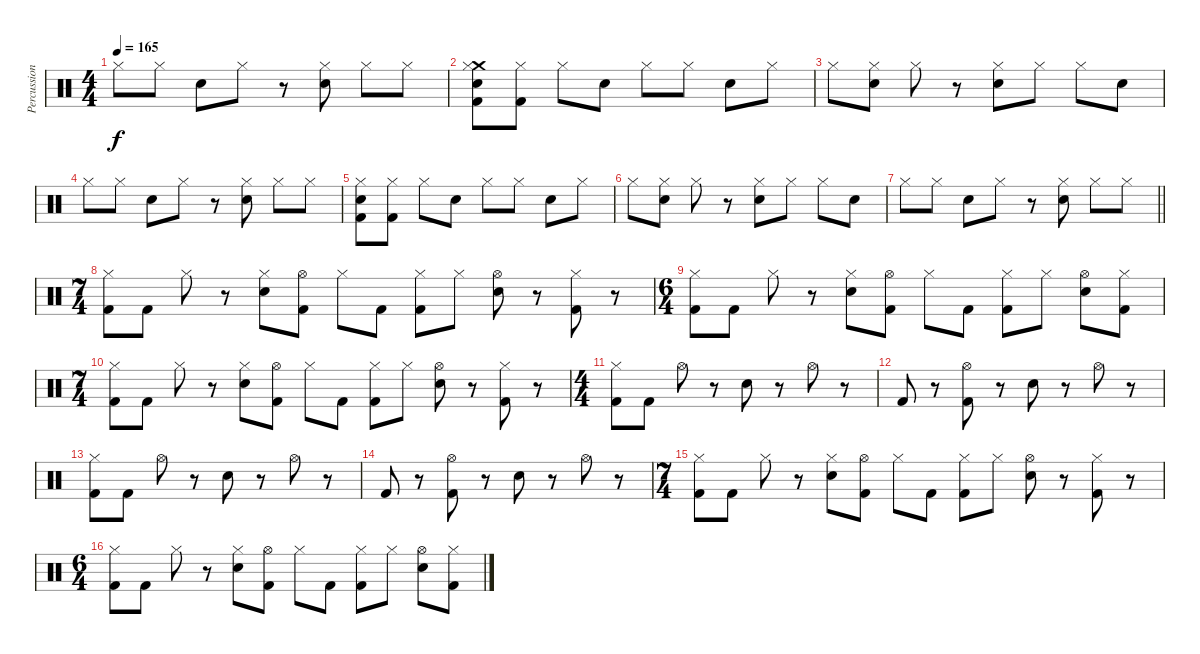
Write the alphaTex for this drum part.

\track ("Percussion" "Percussion") {instrument percussion}
\staff {score}
\articulation defaults
\ts (4 4)
\tempo 165
\clef neutral
\ks c "Hi-Hat (closed)".8{dy f} "Hi-Hat (closed)".8 "Snare (hit) 2".8 "Hi-Hat (closed)".8
r.8 ("Hi-Hat (closed)" "Snare (hit) 2").8 "Hi-Hat (closed)".8 "Hi-Hat (closed)".8 |
("Crash medium (hit)" "Hi-Hat (closed)" "Snare (hit) 2" "Kick (hit) 2").8 ("Hi-Hat (closed)" "Kick (hit) 2").8 "Hi-Hat (closed)".8 "Snare (hit) 2".8 "Hi-Hat (closed)".8 "Hi-Hat (closed)".8 "Snare (hit) 2".8 "Hi-Hat (closed)".8 |
"Hi-Hat (closed)".8 ("Hi-Hat (closed)" "Snare (hit) 2").8 "Hi-Hat (closed)".8 r.8 ("Hi-Hat (closed)" "Snare (hit) 2").8 "Hi-Hat (closed)".8 "Hi-Hat (closed)".8 "Snare (hit) 2".8 |
"Hi-Hat (closed)".8 "Hi-Hat (closed)".8 "Snare (hit) 2".8 "Hi-Hat (closed)".8 r.8 ("Hi-Hat (closed)" "Snare (hit) 2").8 "Hi-Hat (closed)".8 "Hi-Hat (closed)".8 |
("Hi-Hat (closed)" "Snare (hit) 2" "Kick (hit) 2").8 ("Hi-Hat (closed)" "Kick (hit) 2").8 "Hi-Hat (closed)".8 "Snare (hit) 2".8 "Hi-Hat (closed)".8 "Hi-Hat (closed)".8 "Snare (hit) 2".8 "Hi-Hat (closed)".8 |
"Hi-Hat (closed)".8 ("Hi-Hat (closed)" "Snare (hit) 2").8 "Hi-Hat (closed)".8 r.8 ("Hi-Hat (closed)" "Snare (hit) 2").8 "Hi-Hat (closed)".8 "Hi-Hat (closed)".8 "Snare (hit) 2".8 |
\barLineRight lightlight "Hi-Hat (closed)".8 "Hi-Hat (closed)".8 "Snare (hit) 2".8 "Hi-Hat (closed)".8
r.8 ("Hi-Hat (closed)" "Snare (hit) 2").8 "Hi-Hat (closed)".8 "Hi-Hat (closed)".8 |
\ts (7 4)
("Hi-Hat (closed)" "Kick (hit) 2").8 "Kick (hit) 2".8 "Hi-Hat (closed)".8 r.8 ("Hi-Hat (closed)" "Snare (hit) 2").8 ("Hi-Hat (open)" "Kick (hit) 2").8 "Hi-Hat (closed)".8 "Kick (hit) 2".8 ("Hi-Hat (closed)" "Kick (hit) 2").8 "Hi-Hat (closed)".8 ("Hi-Hat (open)" "Snare (hit) 2").8 r.8 ("Hi-Hat (closed)" "Kick (hit) 2").8 r.8 |
\ts (6 4)
("Hi-Hat (closed)" "Kick (hit) 2").8 "Kick (hit) 2".8 "Hi-Hat (closed)".8 r.8 ("Hi-Hat (closed)" "Snare (hit) 2").8 ("Hi-Hat (open)" "Kick (hit) 2").8 "Hi-Hat (closed)".8 "Kick (hit) 2".8 ("Hi-Hat (closed)" "Kick (hit) 2").8 "Hi-Hat (closed)".8 ("Hi-Hat (open)" "Snare (hit) 2").8 ("Hi-Hat (closed)" "Kick (hit) 2").8 |
\ts (7 4)
("Hi-Hat (closed)" "Kick (hit) 2").8 "Kick (hit) 2".8 "Hi-Hat (closed)".8 r.8 ("Hi-Hat (closed)" "Snare (hit) 2").8 ("Hi-Hat (open)" "Kick (hit) 2").8 "Hi-Hat (closed)".8 "Kick (hit) 2".8 ("Hi-Hat (closed)" "Kick (hit) 2").8 "Hi-Hat (closed)".8 ("Hi-Hat (open)" "Snare (hit) 2").8 r.8 ("Hi-Hat (closed)" "Kick (hit) 2").8 r.8 |
\ts (4 4)
("Hi-Hat (closed)" "Kick (hit) 2").8 "Kick (hit) 2".8 "Hi-Hat (open)".8 r.8 "Snare (hit) 2".8 r.8 "Hi-Hat (open)".8 r.8 |
"Kick (hit) 2".8 r.8 ("Hi-Hat (open)" "Kick (hit) 2").8 r.8 "Snare (hit) 2".8 r.8 "Hi-Hat (open)".8 r.8 |
("Hi-Hat (closed)" "Kick (hit) 2").8 "Kick (hit) 2".8 "Hi-Hat (open)".8 r.8 "Snare (hit) 2".8 r.8 "Hi-Hat (open)".8 r.8 |
"Kick (hit) 2".8 r.8 ("Hi-Hat (open)" "Kick (hit) 2").8 r.8 "Snare (hit) 2".8 r.8 "Hi-Hat (open)".8 r.8 |
\ts (7 4)
("Hi-Hat (closed)" "Kick (hit) 2").8 "Kick (hit) 2".8 "Hi-Hat (closed)".8 r.8 ("Hi-Hat (closed)" "Snare (hit) 2").8 ("Hi-Hat (open)" "Kick (hit) 2").8 "Hi-Hat (closed)".8 "Kick (hit) 2".8 ("Hi-Hat (closed)" "Kick (hit) 2").8 "Hi-Hat (closed)".8 ("Hi-Hat (open)" "Snare (hit) 2").8 r.8 ("Hi-Hat (closed)" "Kick (hit) 2").8 r.8 |
\ts (6 4)
("Hi-Hat (closed)" "Kick (hit) 2").8 "Kick (hit) 2".8 "Hi-Hat (closed)".8 r.8 ("Hi-Hat (closed)" "Snare (hit) 2").8 ("Hi-Hat (open)" "Kick (hit) 2").8 "Hi-Hat (closed)".8 "Kick (hit) 2".8 ("Hi-Hat (closed)" "Kick (hit) 2").8 "Hi-Hat (closed)".8 ("Hi-Hat (open)" "Snare (hit) 2").8 ("Hi-Hat (closed)" "Kick (hit) 2").8
